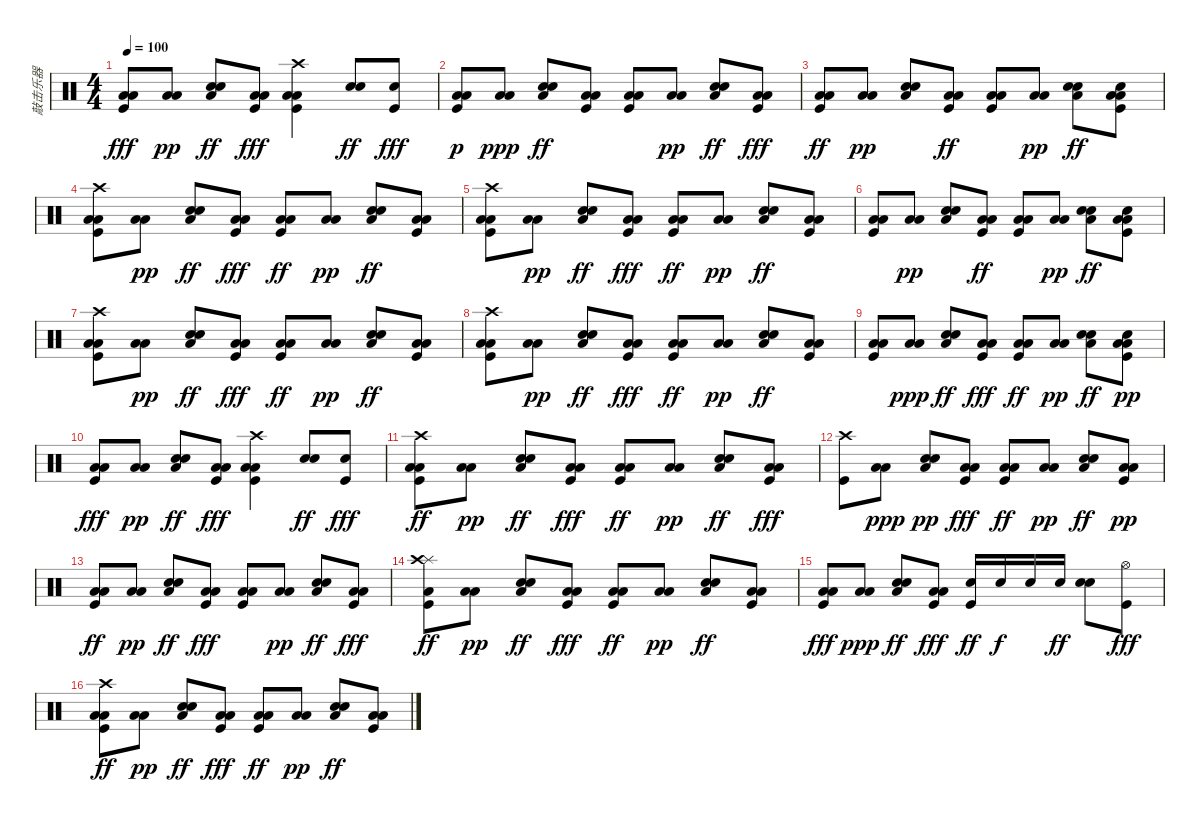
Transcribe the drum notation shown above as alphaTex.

\track ("敲击乐器" "敲击乐器") {instrument percussion}
\staff {score}
\articulation defaults
\ts (4 4)
\tempo 100
\clef neutral
\ks c
("Low Tom (hit)" "Low Floor Tom (hit)" "Kick (hit)").8{dy fff} ("Low Tom (hit)" "Low Floor Tom (hit)").8{dy pp} ("Snare (hit) 2" "Low Floor Tom (hit)" "Hand Clap (hit)").8{dy ff} ("Low Tom (hit)" "Low Floor Tom (hit)" "Kick (hit)").8{dy fff} ("Low Tom (hit)" "Low Floor Tom (hit)" "Kick (hit)" "Crash high (hit)").4 ("Snare (hit) 2" "Hand Clap (hit)").8{dy ff} ("Snare (hit) 2" "Kick (hit)").8{dy fff} |
("Low Tom (hit)" "Low Floor Tom (hit)" "Kick (hit)").8{dy p} ("Low Floor Tom (hit)" "Low Tom (hit)").8{dy ppp} ("Hand Clap (hit)" "Low Floor Tom (hit)" "Snare (hit) 2").8{dy ff} ("Low Tom (hit)" "Low Floor Tom (hit)" "Kick (hit)").8 ("Low Tom (hit)" "Low Floor Tom (hit)" "Kick (hit)").8 ("Low Tom (hit)" "Low Floor Tom (hit)").8{dy pp} ("Snare (hit) 2" "Low Floor Tom (hit)" "Hand Clap (hit)").8{dy ff} ("Low Tom (hit)" "Low Floor Tom (hit)" "Kick (hit)").8{dy fff} |
("Low Tom (hit)" "Low Floor Tom (hit)" "Kick (hit)").8{dy ff} ("Low Tom (hit)" "Low Floor Tom (hit)").8{dy pp} ("Hand Clap (hit)" "Snare (hit) 2" "Low Floor Tom (hit)").8 ("Low Tom (hit)" "Low Floor Tom (hit)" "Kick (hit)").8{dy ff} ("Low Tom (hit)" "Low Floor Tom (hit)" "Kick (hit)").8 ("Low Floor Tom (hit)" "Low Tom (hit)").8{dy pp} ("Snare (hit) 2" "Low Floor Tom (hit)" "Hand Clap (hit)").8{dy ff} ("Snare (hit) 2" "Low Tom (hit)" "Low Floor Tom (hit)" "Kick (hit)").8 |
("Crash high (hit)" "Low Tom (hit)" "Low Floor Tom (hit)" "Kick (hit)").8 ("Low Tom (hit)" "Low Floor Tom (hit)").8{dy pp} ("Snare (hit) 2" "Low Floor Tom (hit)" "Hand Clap (hit)").8{dy ff} ("Low Tom (hit)" "Low Floor Tom (hit)" "Kick (hit)").8{dy fff} ("Low Tom (hit)" "Low Floor Tom (hit)" "Kick (hit)").8{dy ff} ("Low Tom (hit)" "Low Floor Tom (hit)").8{dy pp} ("Low Floor Tom (hit)" "Hand Clap (hit)" "Snare (hit) 2").8{dy ff} ("Low Tom (hit)" "Low Floor Tom (hit)" "Kick (hit)").8 |
("Crash high (hit)" "Low Tom (hit)" "Low Floor Tom (hit)" "Kick (hit)").8 ("Low Tom (hit)" "Low Floor Tom (hit)").8{dy pp} ("Snare (hit) 2" "Low Floor Tom (hit)" "Hand Clap (hit)").8{dy ff} ("Low Tom (hit)" "Low Floor Tom (hit)" "Kick (hit)").8{dy fff} ("Low Tom (hit)" "Low Floor Tom (hit)" "Kick (hit)").8{dy ff} ("Low Tom (hit)" "Low Floor Tom (hit)").8{dy pp} ("Low Floor Tom (hit)" "Hand Clap (hit)" "Snare (hit) 2").8{dy ff} ("Low Tom (hit)" "Low Floor Tom (hit)" "Kick (hit)").8 |
("Low Tom (hit)" "Low Floor Tom (hit)" "Kick (hit)").8 ("Low Tom (hit)" "Low Floor Tom (hit)").8{dy pp} ("Hand Clap (hit)" "Snare (hit) 2" "Low Floor Tom (hit)").8 ("Low Tom (hit)" "Low Floor Tom (hit)" "Kick (hit)").8{dy ff} ("Low Tom (hit)" "Low Floor Tom (hit)" "Kick (hit)").8 ("Low Floor Tom (hit)" "Low Tom (hit)").8{dy pp} ("Snare (hit) 2" "Low Floor Tom (hit)" "Hand Clap (hit)").8{dy ff} ("Snare (hit) 2" "Low Tom (hit)" "Low Floor Tom (hit)" "Kick (hit)").8 |
("Crash high (hit)" "Low Tom (hit)" "Low Floor Tom (hit)" "Kick (hit)").8 ("Low Tom (hit)" "Low Floor Tom (hit)").8{dy pp} ("Snare (hit) 2" "Low Floor Tom (hit)" "Hand Clap (hit)").8{dy ff} ("Low Tom (hit)" "Low Floor Tom (hit)" "Kick (hit)").8{dy fff} ("Low Tom (hit)" "Low Floor Tom (hit)" "Kick (hit)").8{dy ff} ("Low Tom (hit)" "Low Floor Tom (hit)").8{dy pp} ("Low Floor Tom (hit)" "Hand Clap (hit)" "Snare (hit) 2").8{dy ff} ("Low Tom (hit)" "Low Floor Tom (hit)" "Kick (hit)").8 |
("Crash high (hit)" "Low Tom (hit)" "Low Floor Tom (hit)" "Kick (hit)").8 ("Low Tom (hit)" "Low Floor Tom (hit)").8{dy pp} ("Snare (hit) 2" "Low Floor Tom (hit)" "Hand Clap (hit)").8{dy ff} ("Low Tom (hit)" "Low Floor Tom (hit)" "Kick (hit)").8{dy fff} ("Low Tom (hit)" "Low Floor Tom (hit)" "Kick (hit)").8{dy ff} ("Low Tom (hit)" "Low Floor Tom (hit)").8{dy pp} ("Low Floor Tom (hit)" "Hand Clap (hit)" "Snare (hit) 2").8{dy ff} ("Low Tom (hit)" "Low Floor Tom (hit)" "Kick (hit)").8 |
("Low Tom (hit)" "Low Floor Tom (hit)" "Kick (hit)").8 ("Low Floor Tom (hit)" "Low Tom (hit)").8{dy ppp} ("Snare (hit) 2" "Low Floor Tom (hit)" "Hand Clap (hit)").8{dy ff} ("Low Tom (hit)" "Low Floor Tom (hit)" "Kick (hit)").8{dy fff} ("Low Tom (hit)" "Low Floor Tom (hit)" "Kick (hit)").8{dy ff} ("Low Tom (hit)" "Low Floor Tom (hit)").8{dy pp} ("Low Floor Tom (hit)" "Hand Clap (hit)" "Snare (hit) 2").8{dy ff} ("Snare (hit) 2" "Kick (hit)" "Low Tom (hit)" "Low Floor Tom (hit)").8{dy pp} |
("Low Tom (hit)" "Low Floor Tom (hit)" "Kick (hit)").8{dy fff} ("Low Tom (hit)" "Low Floor Tom (hit)").8{dy pp} ("Snare (hit) 2" "Low Floor Tom (hit)" "Hand Clap (hit)").8{dy ff} ("Low Tom (hit)" "Low Floor Tom (hit)" "Kick (hit)").8{dy fff} ("Low Tom (hit)" "Low Floor Tom (hit)" "Kick (hit)" "Crash high (hit)").4 ("Snare (hit) 2" "Hand Clap (hit)").8{dy ff} ("Snare (hit) 2" "Kick (hit)").8{dy fff} |
("Crash high (hit)" "Low Tom (hit)" "Low Floor Tom (hit)" "Kick (hit)").8{dy ff} ("Low Tom (hit)" "Low Floor Tom (hit)").8{dy pp} ("Snare (hit) 2" "Low Floor Tom (hit)" "Hand Clap (hit)").8{dy ff} ("Low Tom (hit)" "Low Floor Tom (hit)" "Kick (hit)").8{dy fff} ("Low Tom (hit)" "Low Floor Tom (hit)" "Kick (hit)").8{dy ff} ("Low Floor Tom (hit)" "Low Tom (hit)").8{dy pp} ("Snare (hit) 2" "Low Floor Tom (hit)" "Hand Clap (hit)").8{dy ff} ("Low Tom (hit)" "Low Floor Tom (hit)" "Kick (hit)").8{dy fff} |
("Crash high (hit)" "Kick (hit)").8 ("Low Floor Tom (hit)" "Low Tom (hit)").8{dy ppp} ("Hand Clap (hit)" "Snare (hit) 2" "Low Floor Tom (hit)").8{dy pp} ("Low Tom (hit)" "Low Floor Tom (hit)" "Kick (hit)").8{dy fff} ("Low Tom (hit)" "Low Floor Tom (hit)" "Kick (hit)").8{dy ff} ("Low Tom (hit)" "Low Floor Tom (hit)").8{dy pp} ("Snare (hit) 2" "Low Floor Tom (hit)" "Hand Clap (hit)").8{dy ff} ("Kick (hit)" "Low Tom (hit)" "Low Floor Tom (hit)").8{dy pp} |
("Low Tom (hit)" "Low Floor Tom (hit)" "Kick (hit)").8{dy ff} ("Low Tom (hit)" "Low Floor Tom (hit)").8{dy pp} ("Snare (hit) 2" "Low Floor Tom (hit)" "Hand Clap (hit)").8{dy ff} ("Low Tom (hit)" "Low Floor Tom (hit)" "Kick (hit)").8{dy fff} ("Low Tom (hit)" "Low Floor Tom (hit)" "Kick (hit)").8 ("Low Tom (hit)" "Low Floor Tom (hit)").8{dy pp} ("Low Floor Tom (hit)" "Hand Clap (hit)" "Snare (hit) 2").8{dy ff} ("Low Tom (hit)" "Low Floor Tom (hit)" "Kick (hit)").8{dy fff} |
("Splash (hit)" "Low Tom (hit)" "Kick (hit)" "Crash high (hit)").8{dy ff} ("Low Tom (hit)" "Low Floor Tom (hit)").8{dy pp} ("Low Floor Tom (hit)" "Hand Clap (hit)" "Snare (hit) 2").8{dy ff} ("Low Tom (hit)" "Low Floor Tom (hit)" "Kick (hit)").8{dy fff} ("Low Tom (hit)" "Low Floor Tom (hit)" "Kick (hit)").8{dy ff} ("Low Floor Tom (hit)" "Low Tom (hit)").8{dy pp} ("Low Floor Tom (hit)" "Hand Clap (hit)" "Snare (hit) 2").8{dy ff} ("Low Tom (hit)" "Low Floor Tom (hit)" "Kick (hit)").8 |
("Low Tom (hit)" "Low Floor Tom (hit)" "Kick (hit)").8{dy fff} ("Low Floor Tom (hit)" "Low Tom (hit)").8{dy ppp} ("Low Floor Tom (hit)" "Hand Clap (hit)" "Snare (hit) 2").8{dy ff} ("Low Tom (hit)" "Low Floor Tom (hit)" "Kick (hit)").8{dy fff} ("Kick (hit)" "Snare (hit) 2").16{dy ff} "Snare (hit) 2".16{dy f} "Snare (hit) 2".16 "Snare (hit) 2".16{dy ff} ("Hand Clap (hit)" "Snare (hit) 2").8 ("Kick (hit)" "Hi-Hat (open)").8{dy fff} |
("Crash high (hit)" "Low Tom (hit)" "Low Floor Tom (hit)" "Kick (hit)").8{dy ff} ("Low Tom (hit)" "Low Floor Tom (hit)").8{dy pp} ("Snare (hit) 2" "Low Floor Tom (hit)" "Hand Clap (hit)").8{dy ff} ("Low Tom (hit)" "Low Floor Tom (hit)" "Kick (hit)").8{dy fff} ("Low Tom (hit)" "Low Floor Tom (hit)" "Kick (hit)").8{dy ff} ("Low Tom (hit)" "Low Floor Tom (hit)").8{dy pp} ("Low Floor Tom (hit)" "Hand Clap (hit)" "Snare (hit) 2").8{dy ff} ("Low Tom (hit)" "Low Floor Tom (hit)" "Kick (hit)").8
